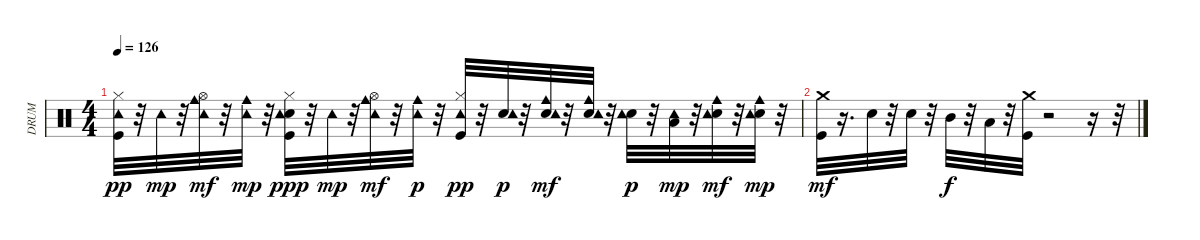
\track ("DRUM" "DRUM") {instrument percussion}
\staff {score}
\articulation defaults
\ts (4 4)
\tempo 126
\clef neutral
\ks c
("Kick (hit)" "Hi-Hat (closed)" "Tambourine (hit)").32{dy pp} r.32 "Tambourine (hit)".32{dy mp} r.32 ("Hi-Hat (open)" "Tambourine (hit)" "Cowbell medium (hit)").32{dy mf} r.32 ("Tambourine (hit)" "Cowbell medium (hit)").32{dy mp} r.32 ("Kick (hit)" "Electric Snare (hit)" "Hi-Hat (closed)" "Tambourine (hit)").32{dy ppp} r.32 "Tambourine (hit)".32{dy mp} r.32 ("Hi-Hat (open)" "Tambourine (hit)" "Cowbell medium (hit)").32{dy mf} r.32 ("Tambourine (hit)" "Cowbell medium (hit)").32{dy p} r.32 ("Kick (hit)" "Hi-Hat (closed)" "Tambourine (hit)").32{dy pp} r.32 ("Electric Snare (hit)" "Tambourine (hit)").32{dy p} r.32 ("Electric Snare (hit)" "Tambourine (hit)" "Cowbell medium (hit)").32{dy mf} r.32 ("Electric Snare (hit)" "Tambourine (hit)" "Cowbell medium (hit)").32 r.32 ("Electric Snare (hit)" "Tambourine (hit)").32{dy p} r.32 ("Low Tom (hit)" "Tambourine (hit)").32{dy mp} r.32 ("Electric Snare (hit)" "Tambourine (hit)" "Cowbell medium (hit)").32{dy mf} r.32 ("Electric Snare (hit)" "Tambourine (hit)" "Cowbell medium (hit)").32{dy mp} r.32 |
("Kick (hit)" "Crash medium (hit)").32{dy mf} r.16{d} "Snare (hit) 2".32 r.32 "Snare (hit) 2".32 r.32 "Mid Tom (hit)".32{dy f} r.32 "Low Tom (hit)".32 r.32 ("Kick (hit)" "Crash medium (hit)").32 r.2 r.16 r.32
